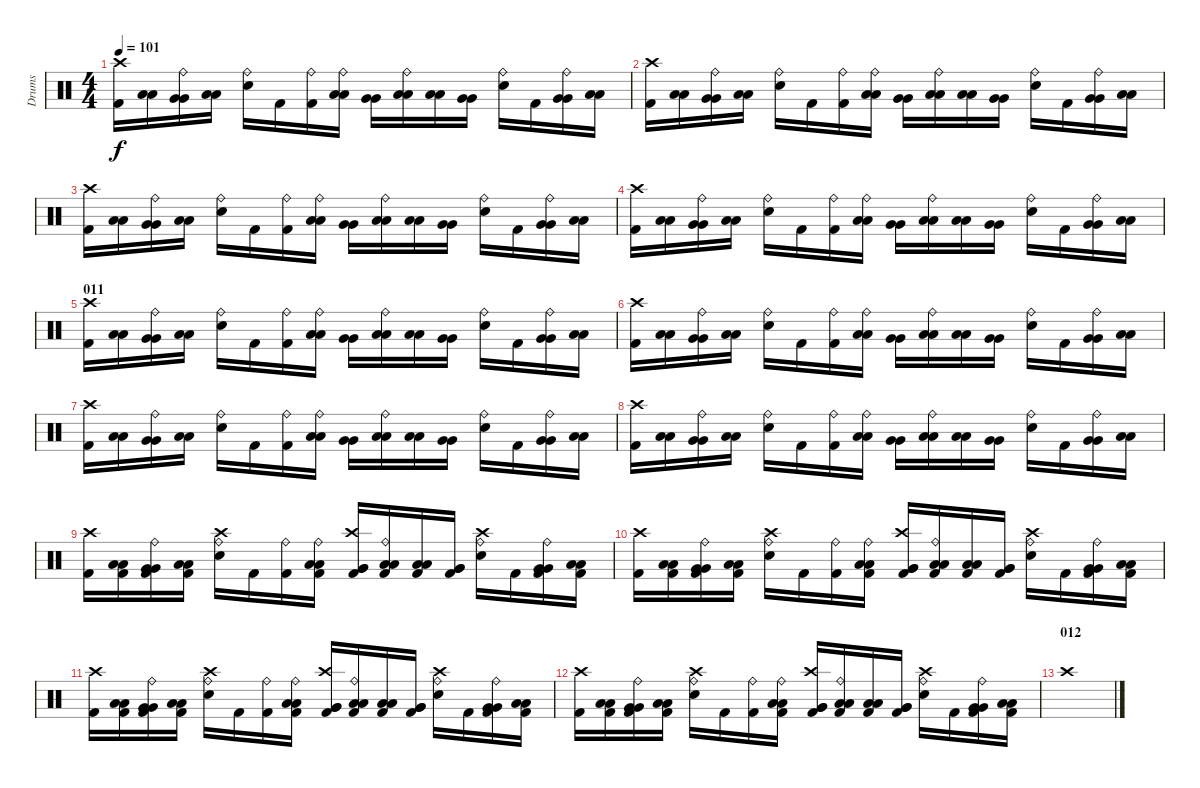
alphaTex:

\track ("Drums" "Drums") {instrument percussion}
\staff {score}
\articulation defaults
\ts (4 4)
\tempo 101
\clef neutral
\ks c
("Kick (hit) 2" "Crash high (hit)").16{dy f} ("Low Tom (hit)" "Low Tom (hit)").16 ("Very Low Tom (hit)" "Very Low Tom (hit)" "Ride (bell)").16 ("Low Floor Tom (hit)" "Low Floor Tom (hit)").16 ("Electric Snare (hit)" "Ride (bell)").16 "Kick (hit) 2".16 ("Kick (hit) 2" "Ride (bell)").16 ("Low Tom (hit)" "Low Tom (hit)" "Ride (bell)").16 ("Very Low Tom (hit)" "Very Low Tom (hit)").16 ("Low Floor Tom (hit)" "Low Floor Tom (hit)" "Ride (bell)").16 ("Low Tom (hit)" "Low Tom (hit)").16 ("Very Low Tom (hit)" "Very Low Tom (hit)").16 ("Electric Snare (hit)" "Ride (bell)").16 "Kick (hit) 2".16 ("Very Low Tom (hit)" "Very Low Tom (hit)" "Ride (bell)").16 ("Low Tom (hit)" "Low Tom (hit)").16 |
("Kick (hit) 2" "Crash high (hit)").16 ("Low Tom (hit)" "Low Tom (hit)").16 ("Very Low Tom (hit)" "Very Low Tom (hit)" "Ride (bell)").16 ("Low Floor Tom (hit)" "Low Floor Tom (hit)").16 ("Electric Snare (hit)" "Ride (bell)").16 "Kick (hit) 2".16 ("Kick (hit) 2" "Ride (bell)").16 ("Low Tom (hit)" "Low Tom (hit)" "Ride (bell)").16 ("Very Low Tom (hit)" "Very Low Tom (hit)").16 ("Low Floor Tom (hit)" "Low Floor Tom (hit)" "Ride (bell)").16 ("Low Tom (hit)" "Low Tom (hit)").16 ("Very Low Tom (hit)" "Very Low Tom (hit)").16 ("Electric Snare (hit)" "Ride (bell)").16 "Kick (hit) 2".16 ("Very Low Tom (hit)" "Very Low Tom (hit)" "Ride (bell)").16 ("Low Tom (hit)" "Low Tom (hit)").16 |
("Kick (hit) 2" "Crash high (hit)").16 ("Low Tom (hit)" "Low Tom (hit)").16 ("Very Low Tom (hit)" "Very Low Tom (hit)" "Ride (bell)").16 ("Low Floor Tom (hit)" "Low Floor Tom (hit)").16 ("Electric Snare (hit)" "Ride (bell)").16 "Kick (hit) 2".16 ("Kick (hit) 2" "Ride (bell)").16 ("Low Tom (hit)" "Low Tom (hit)" "Ride (bell)").16 ("Very Low Tom (hit)" "Very Low Tom (hit)").16 ("Low Floor Tom (hit)" "Low Floor Tom (hit)" "Ride (bell)").16 ("Low Tom (hit)" "Low Tom (hit)").16 ("Very Low Tom (hit)" "Very Low Tom (hit)").16 ("Electric Snare (hit)" "Ride (bell)").16 "Kick (hit) 2".16 ("Very Low Tom (hit)" "Very Low Tom (hit)" "Ride (bell)").16 ("Low Tom (hit)" "Low Tom (hit)").16 |
("Kick (hit) 2" "Crash high (hit)").16 ("Low Tom (hit)" "Low Tom (hit)").16 ("Very Low Tom (hit)" "Very Low Tom (hit)" "Ride (bell)").16 ("Low Floor Tom (hit)" "Low Floor Tom (hit)").16 ("Electric Snare (hit)" "Ride (bell)").16 "Kick (hit) 2".16 ("Kick (hit) 2" "Ride (bell)").16 ("Low Tom (hit)" "Low Tom (hit)" "Ride (bell)").16 ("Very Low Tom (hit)" "Very Low Tom (hit)").16 ("Low Floor Tom (hit)" "Low Floor Tom (hit)" "Ride (bell)").16 ("Low Tom (hit)" "Low Tom (hit)").16 ("Very Low Tom (hit)" "Very Low Tom (hit)").16 ("Electric Snare (hit)" "Ride (bell)").16 "Kick (hit) 2".16 ("Very Low Tom (hit)" "Very Low Tom (hit)" "Ride (bell)").16 ("Low Tom (hit)" "Low Tom (hit)").16 |
\section ("" "011")
("Kick (hit) 2" "Crash high (hit)").16 ("Low Tom (hit)" "Low Tom (hit)").16 ("Very Low Tom (hit)" "Very Low Tom (hit)" "Ride (bell)").16 ("Low Floor Tom (hit)" "Low Floor Tom (hit)").16 ("Electric Snare (hit)" "Ride (bell)").16 "Kick (hit) 2".16 ("Kick (hit) 2" "Ride (bell)").16 ("Low Tom (hit)" "Low Tom (hit)" "Ride (bell)").16 ("Very Low Tom (hit)" "Very Low Tom (hit)").16 ("Low Floor Tom (hit)" "Low Floor Tom (hit)" "Ride (bell)").16 ("Low Tom (hit)" "Low Tom (hit)").16 ("Very Low Tom (hit)" "Very Low Tom (hit)").16 ("Electric Snare (hit)" "Ride (bell)").16 "Kick (hit) 2".16 ("Very Low Tom (hit)" "Very Low Tom (hit)" "Ride (bell)").16 ("Low Tom (hit)" "Low Tom (hit)").16 |
("Kick (hit) 2" "Crash high (hit)").16 ("Low Tom (hit)" "Low Tom (hit)").16 ("Very Low Tom (hit)" "Very Low Tom (hit)" "Ride (bell)").16 ("Low Floor Tom (hit)" "Low Floor Tom (hit)").16 ("Electric Snare (hit)" "Ride (bell)").16 "Kick (hit) 2".16 ("Kick (hit) 2" "Ride (bell)").16 ("Low Tom (hit)" "Low Tom (hit)" "Ride (bell)").16 ("Very Low Tom (hit)" "Very Low Tom (hit)").16 ("Low Floor Tom (hit)" "Low Floor Tom (hit)" "Ride (bell)").16 ("Low Tom (hit)" "Low Tom (hit)").16 ("Very Low Tom (hit)" "Very Low Tom (hit)").16 ("Electric Snare (hit)" "Ride (bell)").16 "Kick (hit) 2".16 ("Very Low Tom (hit)" "Very Low Tom (hit)" "Ride (bell)").16 ("Low Tom (hit)" "Low Tom (hit)").16 |
("Kick (hit) 2" "Crash high (hit)").16 ("Low Tom (hit)" "Low Tom (hit)").16 ("Very Low Tom (hit)" "Very Low Tom (hit)" "Ride (bell)").16 ("Low Floor Tom (hit)" "Low Floor Tom (hit)").16 ("Electric Snare (hit)" "Ride (bell)").16 "Kick (hit) 2".16 ("Kick (hit) 2" "Ride (bell)").16 ("Low Tom (hit)" "Low Tom (hit)" "Ride (bell)").16 ("Very Low Tom (hit)" "Very Low Tom (hit)").16 ("Low Floor Tom (hit)" "Low Floor Tom (hit)" "Ride (bell)").16 ("Low Tom (hit)" "Low Tom (hit)").16 ("Very Low Tom (hit)" "Very Low Tom (hit)").16 ("Electric Snare (hit)" "Ride (bell)").16 "Kick (hit) 2".16 ("Very Low Tom (hit)" "Very Low Tom (hit)" "Ride (bell)").16 ("Low Tom (hit)" "Low Tom (hit)").16 |
("Kick (hit) 2" "Crash high (hit)").16 ("Low Tom (hit)" "Low Tom (hit)").16 ("Very Low Tom (hit)" "Very Low Tom (hit)" "Ride (bell)").16 ("Low Floor Tom (hit)" "Low Floor Tom (hit)").16 ("Electric Snare (hit)" "Ride (bell)").16 "Kick (hit) 2".16 ("Kick (hit) 2" "Ride (bell)").16 ("Low Tom (hit)" "Low Tom (hit)" "Ride (bell)").16 ("Very Low Tom (hit)" "Very Low Tom (hit)").16 ("Low Floor Tom (hit)" "Low Floor Tom (hit)" "Ride (bell)").16 ("Low Tom (hit)" "Low Tom (hit)").16 ("Very Low Tom (hit)" "Very Low Tom (hit)").16 ("Electric Snare (hit)" "Ride (bell)").16 "Kick (hit) 2".16 ("Very Low Tom (hit)" "Very Low Tom (hit)" "Ride (bell)").16 ("Low Tom (hit)" "Low Tom (hit)").16 |
("Kick (hit) 2" "Crash high (hit)").16 ("Kick (hit) 2" "Low Tom (hit)" "Low Tom (hit)").16 ("Kick (hit) 2" "Very Low Tom (hit)" "Very Low Tom (hit)" "Ride (bell)").16 ("Kick (hit) 2" "Low Floor Tom (hit)" "Low Floor Tom (hit)").16 ("Electric Snare (hit)" "Crash high (hit)" "Ride (bell)").16 "Kick (hit) 2".16 ("Kick (hit) 2" "Ride (bell)").16 ("Kick (hit) 2" "Low Tom (hit)" "Low Tom (hit)" "Ride (bell)").16 ("Kick (hit) 2" "Very Low Tom (hit)" "Very Low Tom (hit)" "Crash high (hit)").16 ("Kick (hit) 2" "Low Floor Tom (hit)" "Low Floor Tom (hit)" "Ride (bell)").16 ("Kick (hit) 2" "Low Tom (hit)" "Low Tom (hit)").16 ("Kick (hit) 2" "Very Low Tom (hit)" "Very Low Tom (hit)").16 ("Electric Snare (hit)" "Crash high (hit)" "Ride (bell)").16 "Kick (hit) 2".16 ("Kick (hit) 2" "Very Low Tom (hit)" "Very Low Tom (hit)" "Ride (bell)").16 ("Kick (hit) 2" "Low Tom (hit)" "Low Tom (hit)").16 |
("Kick (hit) 2" "Crash high (hit)").16 ("Kick (hit) 2" "Low Tom (hit)" "Low Tom (hit)").16 ("Kick (hit) 2" "Very Low Tom (hit)" "Very Low Tom (hit)" "Ride (bell)").16 ("Kick (hit) 2" "Low Floor Tom (hit)" "Low Floor Tom (hit)").16 ("Electric Snare (hit)" "Crash high (hit)" "Ride (bell)").16 "Kick (hit) 2".16 ("Kick (hit) 2" "Ride (bell)").16 ("Kick (hit) 2" "Low Tom (hit)" "Low Tom (hit)" "Ride (bell)").16 ("Kick (hit) 2" "Very Low Tom (hit)" "Very Low Tom (hit)" "Crash high (hit)").16 ("Kick (hit) 2" "Low Floor Tom (hit)" "Low Floor Tom (hit)" "Ride (bell)").16 ("Kick (hit) 2" "Low Tom (hit)" "Low Tom (hit)").16 ("Kick (hit) 2" "Very Low Tom (hit)" "Very Low Tom (hit)").16 ("Electric Snare (hit)" "Crash high (hit)" "Ride (bell)").16 "Kick (hit) 2".16 ("Kick (hit) 2" "Very Low Tom (hit)" "Very Low Tom (hit)" "Ride (bell)").16 ("Kick (hit) 2" "Low Tom (hit)" "Low Tom (hit)").16 |
("Kick (hit) 2" "Crash high (hit)").16 ("Kick (hit) 2" "Low Tom (hit)" "Low Tom (hit)").16 ("Kick (hit) 2" "Very Low Tom (hit)" "Very Low Tom (hit)" "Ride (bell)").16 ("Kick (hit) 2" "Low Floor Tom (hit)" "Low Floor Tom (hit)").16 ("Electric Snare (hit)" "Crash high (hit)" "Ride (bell)").16 "Kick (hit) 2".16 ("Kick (hit) 2" "Ride (bell)").16 ("Kick (hit) 2" "Low Tom (hit)" "Low Tom (hit)" "Ride (bell)").16 ("Kick (hit) 2" "Very Low Tom (hit)" "Very Low Tom (hit)" "Crash high (hit)").16 ("Kick (hit) 2" "Low Floor Tom (hit)" "Low Floor Tom (hit)" "Ride (bell)").16 ("Kick (hit) 2" "Low Tom (hit)" "Low Tom (hit)").16 ("Kick (hit) 2" "Very Low Tom (hit)" "Very Low Tom (hit)").16 ("Electric Snare (hit)" "Crash high (hit)" "Ride (bell)").16 "Kick (hit) 2".16 ("Kick (hit) 2" "Very Low Tom (hit)" "Very Low Tom (hit)" "Ride (bell)").16 ("Kick (hit) 2" "Low Tom (hit)" "Low Tom (hit)").16 |
("Kick (hit) 2" "Crash high (hit)").16 ("Kick (hit) 2" "Low Tom (hit)" "Low Tom (hit)").16 ("Kick (hit) 2" "Very Low Tom (hit)" "Very Low Tom (hit)" "Ride (bell)").16 ("Kick (hit) 2" "Low Floor Tom (hit)" "Low Floor Tom (hit)").16 ("Electric Snare (hit)" "Crash high (hit)" "Ride (bell)").16 "Kick (hit) 2".16 ("Kick (hit) 2" "Ride (bell)").16 ("Kick (hit) 2" "Low Tom (hit)" "Low Tom (hit)" "Ride (bell)").16 ("Kick (hit) 2" "Very Low Tom (hit)" "Very Low Tom (hit)" "Crash high (hit)").16 ("Kick (hit) 2" "Low Floor Tom (hit)" "Low Floor Tom (hit)" "Ride (bell)").16 ("Kick (hit) 2" "Low Tom (hit)" "Low Tom (hit)").16 ("Kick (hit) 2" "Very Low Tom (hit)" "Very Low Tom (hit)").16 ("Electric Snare (hit)" "Crash high (hit)" "Ride (bell)").16 "Kick (hit) 2".16 ("Kick (hit) 2" "Very Low Tom (hit)" "Very Low Tom (hit)" "Ride (bell)").16 ("Kick (hit) 2" "Low Tom (hit)" "Low Tom (hit)").16 |
\section ("" "012")
"Crash high (hit)".1
